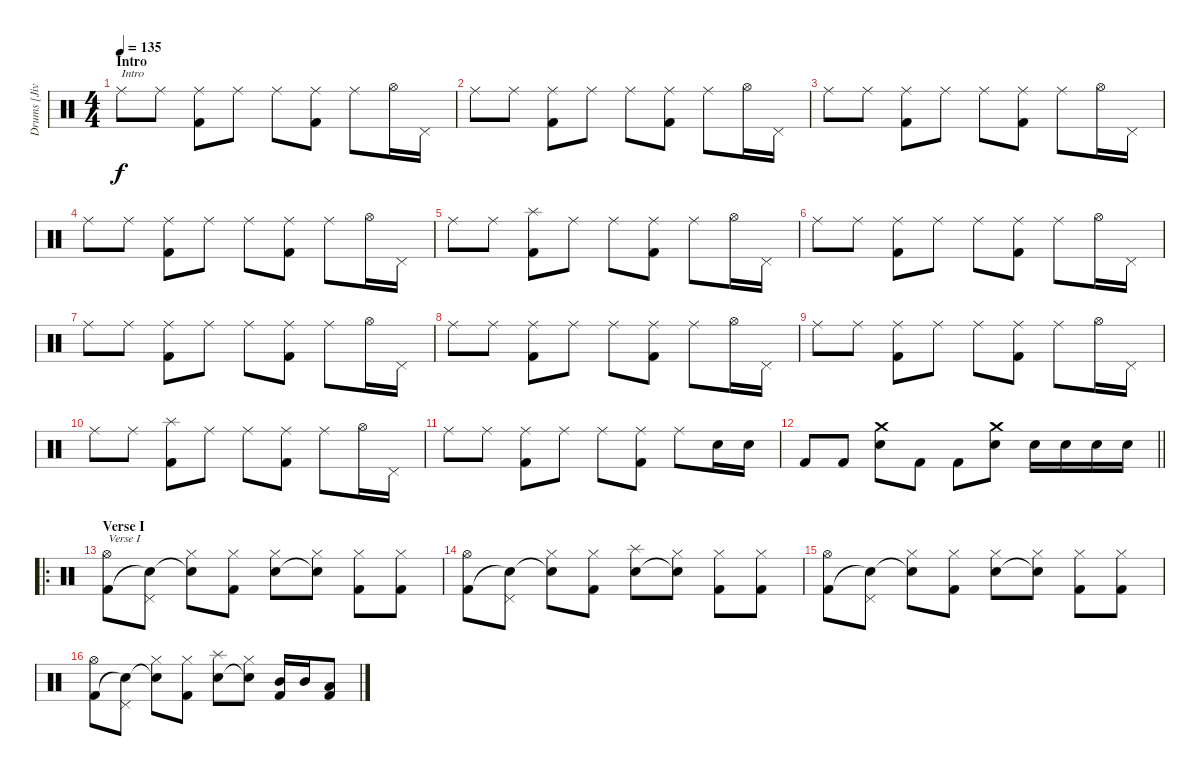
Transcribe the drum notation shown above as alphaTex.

\track ("Drums [Jivarp]" "Drums [Jiv") {instrument percussion}
\staff {score}
\articulation defaults
\ts (4 4)
\section ("" "Intro")
\tempo 135
\clef neutral
\ks c "Ride (middle)".8{txt "Intro" dy f} "Ride (middle)".8
("Ride (middle)" "Kick (hit) 2").8 "Ride (middle)".8 "Ride (middle)".8 ("Ride (middle)" "Kick (hit) 2").8 "Ride (middle)".8 "Hi-Hat (open)".16 "Pedal Hi-Hat (hit)".16 |
"Ride (middle)".8 "Ride (middle)".8 ("Ride (middle)" "Kick (hit) 2").8 "Ride (middle)".8 "Ride (middle)".8 ("Ride (middle)" "Kick (hit) 2").8 "Ride (middle)".8 "Hi-Hat (open)".16 "Pedal Hi-Hat (hit)".16 |
"Ride (middle)".8 "Ride (middle)".8 ("Ride (middle)" "Kick (hit) 2").8 "Ride (middle)".8 "Ride (middle)".8 ("Ride (middle)" "Kick (hit) 2").8 "Ride (middle)".8 "Hi-Hat (open)".16 "Pedal Hi-Hat (hit)".16 |
"Ride (middle)".8 "Ride (middle)".8 ("Ride (middle)" "Kick (hit) 2").8 "Ride (middle)".8 "Ride (middle)".8 ("Ride (middle)" "Kick (hit) 2").8 "Ride (middle)".8 "Hi-Hat (open)".16 "Pedal Hi-Hat (hit)".16 |
"Ride (middle)".8 "Ride (middle)".8 ("Splash (hit)" "Kick (hit) 2").8 "Ride (middle)".8 "Ride (middle)".8 ("Ride (middle)" "Kick (hit) 2").8 "Ride (middle)".8 "Hi-Hat (open)".16 "Pedal Hi-Hat (hit)".16 |
"Ride (middle)".8 "Ride (middle)".8 ("Ride (middle)" "Kick (hit) 2").8 "Ride (middle)".8 "Ride (middle)".8 ("Ride (middle)" "Kick (hit) 2").8 "Ride (middle)".8 "Hi-Hat (open)".16 "Pedal Hi-Hat (hit)".16 |
"Ride (middle)".8 "Ride (middle)".8 ("Ride (middle)" "Kick (hit) 2").8 "Ride (middle)".8 "Ride (middle)".8 ("Ride (middle)" "Kick (hit) 2").8 "Ride (middle)".8 "Hi-Hat (open)".16 "Pedal Hi-Hat (hit)".16 |
"Ride (middle)".8 "Ride (middle)".8 ("Ride (middle)" "Kick (hit) 2").8 "Ride (middle)".8 "Ride (middle)".8 ("Ride (middle)" "Kick (hit) 2").8 "Ride (middle)".8 "Hi-Hat (open)".16 "Pedal Hi-Hat (hit)".16 |
"Ride (middle)".8 "Ride (middle)".8 ("Ride (middle)" "Kick (hit) 2").8 "Ride (middle)".8 "Ride (middle)".8 ("Ride (middle)" "Kick (hit) 2").8 "Ride (middle)".8 "Hi-Hat (open)".16 "Pedal Hi-Hat (hit)".16 |
"Ride (middle)".8 "Ride (middle)".8 ("Splash (hit)" "Kick (hit) 2").8 "Ride (middle)".8 "Ride (middle)".8 ("Ride (middle)" "Kick (hit) 2").8 "Ride (middle)".8 "Hi-Hat (open)".16 "Pedal Hi-Hat (hit)".16 |
"Ride (middle)".8 "Ride (middle)".8 ("Ride (middle)" "Kick (hit) 2").8 "Ride (middle)".8 "Ride (middle)".8 ("Ride (middle)" "Kick (hit) 2").8 "Ride (middle)".8 "Electric Snare (hit)".16 "Electric Snare (hit)".16 |
\barLineRight lightlight "Kick (hit) 2".8 "Kick (hit) 2".8
("Crash medium (hit)" "Electric Snare (hit)").8 "Kick (hit) 2".8 "Kick (hit) 2".8 ("Crash medium (hit)" "Electric Snare (hit)").8 "Electric Snare (hit)".16 "Electric Snare (hit)".16 "Electric Snare (hit)".16 "Electric Snare (hit)".16 |
\ro
\section ("" "Verse I")
("Hi-Hat (open)" "Kick (hit) 2").8{txt "Verse I"} ("Pedal Hi-Hat (hit)" "Snare (hit)"{t}).8 ("Hi-Hat (closed)" "Snare (hit)"{t}).8 ("Hi-Hat (closed)" "Kick (hit) 2").8 ("Hi-Hat (closed)" "Electric Snare (hit)").8 ("Hi-Hat (closed)" "Snare (hit)"{t}).8 ("Hi-Hat (closed)" "Kick (hit) 2").8 ("Hi-Hat (closed)" "Kick (hit) 2").8 |
("Hi-Hat (open)" "Kick (hit) 2").8 ("Pedal Hi-Hat (hit)" "Snare (hit)"{t}).8 ("Hi-Hat (closed)" "Snare (hit)"{t}).8 ("Hi-Hat (closed)" "Kick (hit) 2").8 ("Splash (hit)" "Electric Snare (hit)").8 ("Hi-Hat (closed)" "Snare (hit)"{t}).8 ("Hi-Hat (closed)" "Kick (hit) 2").8 ("Hi-Hat (closed)" "Kick (hit) 2").8 |
("Hi-Hat (open)" "Kick (hit) 2").8 ("Pedal Hi-Hat (hit)" "Snare (hit)"{t}).8 ("Hi-Hat (closed)" "Snare (hit)"{t}).8 ("Hi-Hat (closed)" "Kick (hit) 2").8 ("Hi-Hat (closed)" "Electric Snare (hit)").8 ("Hi-Hat (closed)" "Snare (hit)"{t}).8 ("Hi-Hat (closed)" "Kick (hit) 2").8 ("Hi-Hat (closed)" "Kick (hit) 2").8 |
("Hi-Hat (open)" "Kick (hit) 2").8 ("Pedal Hi-Hat (hit)" "Snare (hit)"{t}).8 ("Hi-Hat (closed)" "Snare (hit)"{t}).8 ("Hi-Hat (closed)" "Kick (hit) 2").8 ("Splash (hit)" "Electric Snare (hit)").8 ("Hi-Hat (closed)" "Snare (hit)"{t}).8 ("Mid Tom (hit)" "Kick (hit) 2").16 "Mid Tom (hit)".16 ("Low Tom (hit)" "Kick (hit) 2").8
